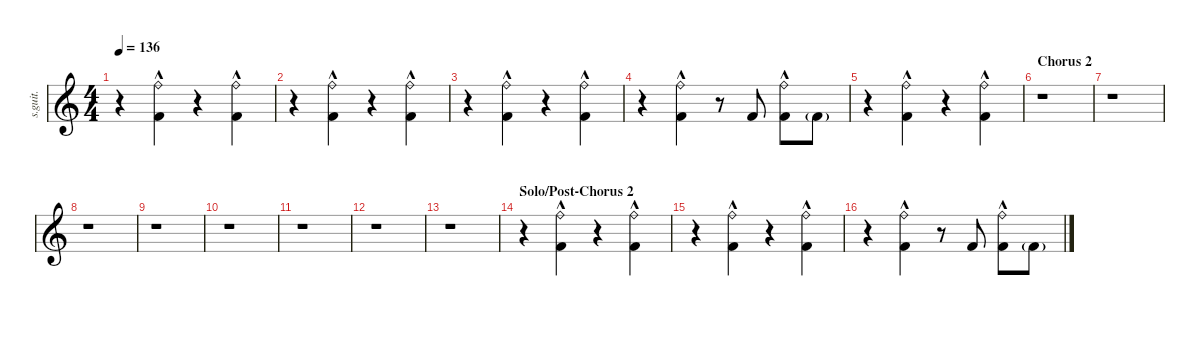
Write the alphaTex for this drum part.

\defaultSystemsLayout 4
\hideDynamics
\bracketExtendMode nobrackets
\track ("Chris Fehn" "s.guit.") {instrument percussion}
\staff {score}
\articulation defaults
\ts (4 4)
\tempo 136
\clef g2
\ks c
r.4{dy fff} ("Ride (bell)"{hac} "Kick (hit) 2"{hac}).4{lyrics (0 "") lyrics (1 "") lyrics (2 "") lyrics (3 "") lyrics (4 "")} r.4 ("Ride (bell)"{hac} "Kick (hit) 2"{hac}).4{lyrics (0 "") lyrics (1 "") lyrics (2 "") lyrics (3 "") lyrics (4 "")} |
r.4 ("Ride (bell)"{hac} "Kick (hit) 2"{hac}).4{lyrics (0 "") lyrics (1 "") lyrics (2 "") lyrics (3 "") lyrics (4 "")} r.4 ("Ride (bell)"{hac} "Kick (hit) 2"{hac}).4{lyrics (0 "") lyrics (1 "") lyrics (2 "") lyrics (3 "") lyrics (4 "")} |
r.4 ("Ride (bell)"{hac} "Kick (hit) 2"{hac}).4{lyrics (0 "") lyrics (1 "") lyrics (2 "") lyrics (3 "") lyrics (4 "")} r.4 ("Ride (bell)"{hac} "Kick (hit) 2"{hac}).4{lyrics (0 "") lyrics (1 "") lyrics (2 "") lyrics (3 "") lyrics (4 "")} |
r.4 ("Ride (bell)"{hac} "Kick (hit) 2"{hac}).4{lyrics (0 "") lyrics (1 "") lyrics (2 "") lyrics (3 "") lyrics (4 "")} r.8 "Kick (hit) 2".8{lyrics (0 "") lyrics (1 "") lyrics (2 "") lyrics (3 "") lyrics (4 "")} ("Ride (bell)"{hac} "Kick (hit) 2"{hac}).8{lyrics (0 "") lyrics (1 "") lyrics (2 "") lyrics (3 "") lyrics (4 "")} "Kick (hit) 2"{g}.8{lyrics (0 "") lyrics (1 "") lyrics (2 "") lyrics (3 "") lyrics (4 "")} |
r.4 ("Ride (bell)"{hac} "Kick (hit) 2"{hac}).4{lyrics (0 "") lyrics (1 "") lyrics (2 "") lyrics (3 "") lyrics (4 "")} r.4 ("Ride (bell)"{hac} "Kick (hit) 2"{hac}).4{lyrics (0 "") lyrics (1 "") lyrics (2 "") lyrics (3 "") lyrics (4 "")} |
\section ("" "Chorus 2")
r.1 |
r.1 |
r.1 |
r.1 |
r.1 |
r.1 |
r.1 |
r.1 |
\section ("" "Solo/Post-Chorus 2")
r.4 ("Ride (bell)"{hac} "Kick (hit) 2"{hac}).4{lyrics (0 "") lyrics (1 "") lyrics (2 "") lyrics (3 "") lyrics (4 "")} r.4 ("Ride (bell)"{hac} "Kick (hit) 2"{hac}).4{lyrics (0 "") lyrics (1 "") lyrics (2 "") lyrics (3 "") lyrics (4 "")} |
r.4 ("Ride (bell)"{hac} "Kick (hit) 2"{hac}).4{lyrics (0 "") lyrics (1 "") lyrics (2 "") lyrics (3 "") lyrics (4 "")} r.4 ("Ride (bell)"{hac} "Kick (hit) 2"{hac}).4{lyrics (0 "") lyrics (1 "") lyrics (2 "") lyrics (3 "") lyrics (4 "")} |
r.4 ("Ride (bell)"{hac} "Kick (hit) 2"{hac}).4{lyrics (0 "") lyrics (1 "") lyrics (2 "") lyrics (3 "") lyrics (4 "")} r.8 "Kick (hit) 2".8{lyrics (0 "") lyrics (1 "") lyrics (2 "") lyrics (3 "") lyrics (4 "")} ("Ride (bell)"{hac} "Kick (hit) 2"{hac}).8{lyrics (0 "") lyrics (1 "") lyrics (2 "") lyrics (3 "") lyrics (4 "")} "Kick (hit) 2"{g}.8{lyrics (0 "") lyrics (1 "") lyrics (2 "") lyrics (3 "") lyrics (4 "")}
